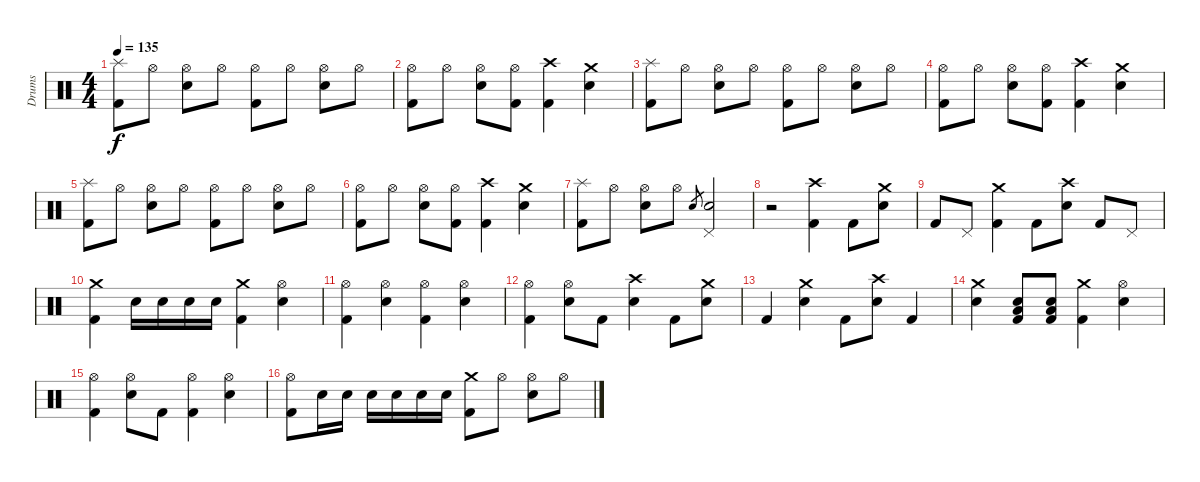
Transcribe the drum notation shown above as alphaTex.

\track ("Drums" "Drums") {instrument percussion}
\staff {score}
\articulation defaults
\ts (4 4)
\tempo 135
\clef neutral
\ks c
("Splash (hit)" "Kick (hit) 2").8{dy f} "Hi-Hat (open)".8 ("Hi-Hat (open)" "Electric Snare (hit)").8 "Hi-Hat (open)".8 ("Hi-Hat (open)" "Kick (hit) 2").8 "Hi-Hat (open)".8 ("Hi-Hat (open)" "Electric Snare (hit)").8 "Hi-Hat (open)".8 |
("Hi-Hat (open)" "Kick (hit) 2").8 "Hi-Hat (open)".8 ("Hi-Hat (open)" "Electric Snare (hit)").8 ("Hi-Hat (open)" "Kick (hit) 2").8 ("Crash high (hit)" "Kick (hit) 2").4 ("Crash medium (hit)" "Electric Snare (hit)").4 |
("Splash (hit)" "Kick (hit) 2").8 "Hi-Hat (open)".8 ("Hi-Hat (open)" "Electric Snare (hit)").8 "Hi-Hat (open)".8 ("Hi-Hat (open)" "Kick (hit) 2").8 "Hi-Hat (open)".8 ("Hi-Hat (open)" "Electric Snare (hit)").8 "Hi-Hat (open)".8 |
("Hi-Hat (open)" "Kick (hit) 2").8 "Hi-Hat (open)".8 ("Hi-Hat (open)" "Electric Snare (hit)").8 ("Hi-Hat (open)" "Kick (hit) 2").8 ("Crash high (hit)" "Kick (hit) 2").4 ("Crash medium (hit)" "Electric Snare (hit)").4 |
("Splash (hit)" "Kick (hit) 2").8 "Hi-Hat (open)".8 ("Hi-Hat (open)" "Electric Snare (hit)").8 "Hi-Hat (open)".8 ("Hi-Hat (open)" "Kick (hit) 2").8 "Hi-Hat (open)".8 ("Hi-Hat (open)" "Electric Snare (hit)").8 "Hi-Hat (open)".8 |
("Hi-Hat (open)" "Kick (hit) 2").8 "Hi-Hat (open)".8 ("Hi-Hat (open)" "Electric Snare (hit)").8 ("Hi-Hat (open)" "Kick (hit) 2").8 ("Crash high (hit)" "Kick (hit) 2").4 ("Crash medium (hit)" "Electric Snare (hit)").4 |
("Splash (hit)" "Kick (hit) 2").8 "Hi-Hat (open)".8 ("Hi-Hat (open)" "Electric Snare (hit)").8 "Hi-Hat (open)".8 "Electric Snare (hit)".8{gr} ("Pedal Hi-Hat (hit)" "Electric Snare (hit)").2 |
r.2 ("Crash high (hit)" "Kick (hit) 2").4 "Kick (hit) 2".8 ("Crash medium (hit)" "Electric Snare (hit)").8 |
"Kick (hit) 2".8 "Pedal Hi-Hat (hit)".8 ("Crash medium (hit)" "Kick (hit) 2").4 "Kick (hit) 2".8 ("Crash high (hit)" "Electric Snare (hit)").8 "Kick (hit) 2".8 "Pedal Hi-Hat (hit)".8 |
("Crash medium (hit)" "Kick (hit) 2").4 "Electric Snare (hit)".16 "Electric Snare (hit)".16 "Electric Snare (hit)".16 "Electric Snare (hit)".16 ("Crash medium (hit)" "Kick (hit) 2").4 ("Hi-Hat (open)" "Electric Snare (hit)").4 |
("Hi-Hat (open)" "Kick (hit) 2").4 ("Hi-Hat (open)" "Electric Snare (hit)").4 ("Hi-Hat (open)" "Kick (hit) 2").4 ("Hi-Hat (open)" "Electric Snare (hit)").4 |
("Hi-Hat (open)" "Kick (hit) 2").4 ("Hi-Hat (open)" "Electric Snare (hit)").8 "Kick (hit) 2".8 ("Crash high (hit)" "Electric Snare (hit)").4 "Kick (hit) 2".8 ("Crash medium (hit)" "Electric Snare (hit)").8 |
"Kick (hit) 2".4 ("Crash medium (hit)" "Electric Snare (hit)").4 "Kick (hit) 2".8 ("Crash high (hit)" "Electric Snare (hit)").8 "Kick (hit) 2".4 |
("Crash medium (hit)" "Electric Snare (hit)").4 ("Low Floor Tom (hit)" "Electric Snare (hit)" "Kick (hit) 2").8 ("Low Floor Tom (hit)" "Electric Snare (hit)" "Kick (hit) 2").8 ("Crash medium (hit)" "Kick (hit) 2").4 ("Hi-Hat (open)" "Electric Snare (hit)").4 |
("Hi-Hat (open)" "Kick (hit) 2").4 ("Hi-Hat (open)" "Electric Snare (hit)").8 "Kick (hit) 2".8 ("Hi-Hat (open)" "Kick (hit) 2").4 ("Hi-Hat (open)" "Electric Snare (hit)").4 |
("Hi-Hat (open)" "Kick (hit) 2").8 "Electric Snare (hit)".16 "Electric Snare (hit)".16 "Electric Snare (hit)".16 "Electric Snare (hit)".16 "Electric Snare (hit)".16 "Electric Snare (hit)".16 ("Crash medium (hit)" "Kick (hit) 2").8 "Hi-Hat (open)".8 ("Hi-Hat (open)" "Electric Snare (hit)").8 "Hi-Hat (open)".8
